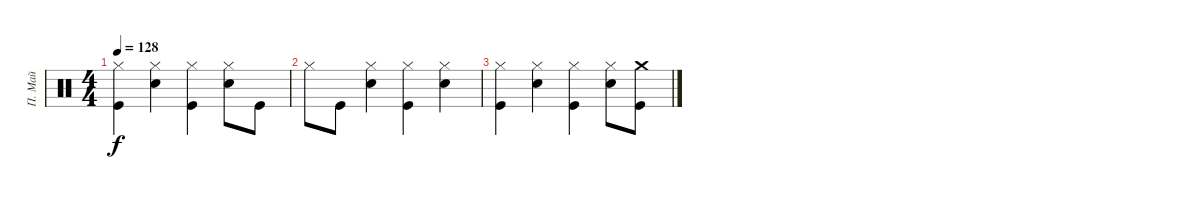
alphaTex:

\track ("П. Май" "П. Май") {instrument percussion}
\staff {score}
\articulation defaults
\ts (4 4)
\tempo 128
\clef neutral
\ks c
("Hi-Hat (closed)" "Kick (hit)").4{dy f} ("Hi-Hat (closed)" "Snare (hit) 2").4 ("Hi-Hat (closed)" "Kick (hit)").4 ("Hi-Hat (closed)" "Snare (hit) 2").8 "Kick (hit)".8 |
"Hi-Hat (closed)".8 "Kick (hit)".8 ("Hi-Hat (closed)" "Snare (hit) 2").4 ("Hi-Hat (closed)" "Kick (hit)").4 ("Hi-Hat (closed)" "Snare (hit) 2").4 |
("Hi-Hat (closed)" "Kick (hit)").4 ("Hi-Hat (closed)" "Snare (hit) 2").4 ("Hi-Hat (closed)" "Kick (hit)").4 ("Hi-Hat (closed)" "Snare (hit) 2").8 ("Crash medium (hit)" "Kick (hit)").8
